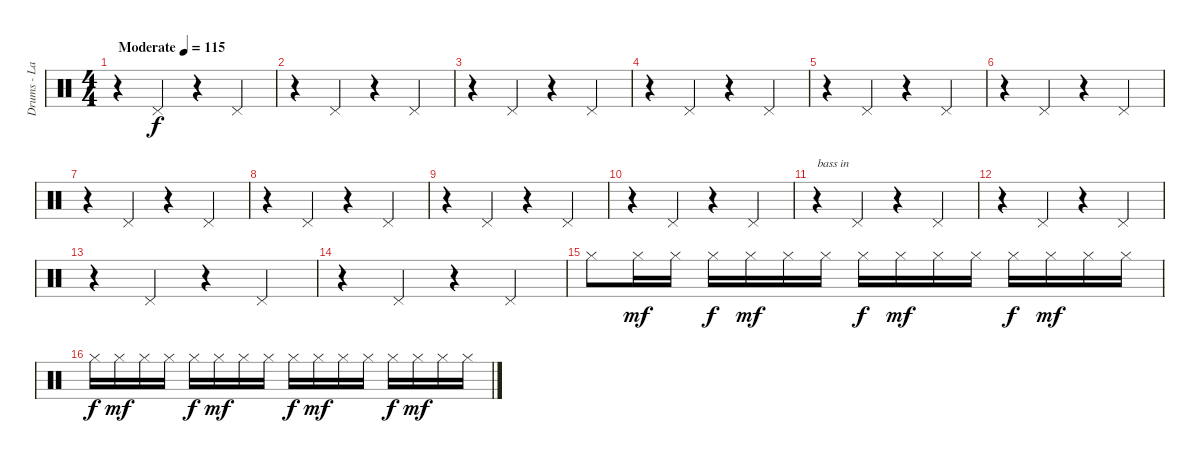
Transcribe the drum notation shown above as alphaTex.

\track ("Drums - Lars Ulrich" "Drums - La") {instrument percussion}
\staff {score}
\articulation defaults
\ts (4 4)
\tempo (115 "Moderate")
\clef neutral
\ks c
r.4{dy f} "Pedal Hi-Hat (hit)".4 r.4 "Pedal Hi-Hat (hit)".4 |
r.4 "Pedal Hi-Hat (hit)".4 r.4 "Pedal Hi-Hat (hit)".4 |
r.4 "Pedal Hi-Hat (hit)".4 r.4 "Pedal Hi-Hat (hit)".4 |
r.4 "Pedal Hi-Hat (hit)".4 r.4 "Pedal Hi-Hat (hit)".4 |
r.4 "Pedal Hi-Hat (hit)".4 r.4 "Pedal Hi-Hat (hit)".4 |
r.4 "Pedal Hi-Hat (hit)".4 r.4 "Pedal Hi-Hat (hit)".4 |
r.4 "Pedal Hi-Hat (hit)".4 r.4 "Pedal Hi-Hat (hit)".4 |
r.4 "Pedal Hi-Hat (hit)".4 r.4 "Pedal Hi-Hat (hit)".4 |
r.4 "Pedal Hi-Hat (hit)".4 r.4 "Pedal Hi-Hat (hit)".4 |
r.4 "Pedal Hi-Hat (hit)".4 r.4 "Pedal Hi-Hat (hit)".4 |
r.4{txt "bass in"} "Pedal Hi-Hat (hit)".4 r.4 "Pedal Hi-Hat (hit)".4 |
r.4 "Pedal Hi-Hat (hit)".4 r.4 "Pedal Hi-Hat (hit)".4 |
r.4 "Pedal Hi-Hat (hit)".4 r.4 "Pedal Hi-Hat (hit)".4 |
r.4 "Pedal Hi-Hat (hit)".4 r.4 "Pedal Hi-Hat (hit)".4 |
"Hi-Hat (closed)".8 "Hi-Hat (closed)".16{dy mf} "Hi-Hat (closed)".16 "Hi-Hat (closed)".16{dy f} "Hi-Hat (closed)".16{dy mf} "Hi-Hat (closed)".16 "Hi-Hat (closed)".16 "Hi-Hat (closed)".16{dy f} "Hi-Hat (closed)".16{dy mf} "Hi-Hat (closed)".16 "Hi-Hat (closed)".16 "Hi-Hat (closed)".16{dy f} "Hi-Hat (closed)".16{dy mf} "Hi-Hat (closed)".16 "Hi-Hat (closed)".16 |
"Hi-Hat (closed)".16{dy f} "Hi-Hat (closed)".16{dy mf} "Hi-Hat (closed)".16 "Hi-Hat (closed)".16 "Hi-Hat (closed)".16{dy f} "Hi-Hat (closed)".16{dy mf} "Hi-Hat (closed)".16 "Hi-Hat (closed)".16 "Hi-Hat (closed)".16{dy f} "Hi-Hat (closed)".16{dy mf} "Hi-Hat (closed)".16 "Hi-Hat (closed)".16 "Hi-Hat (closed)".16{dy f} "Hi-Hat (closed)".16{dy mf} "Hi-Hat (closed)".16 "Hi-Hat (closed)".16
